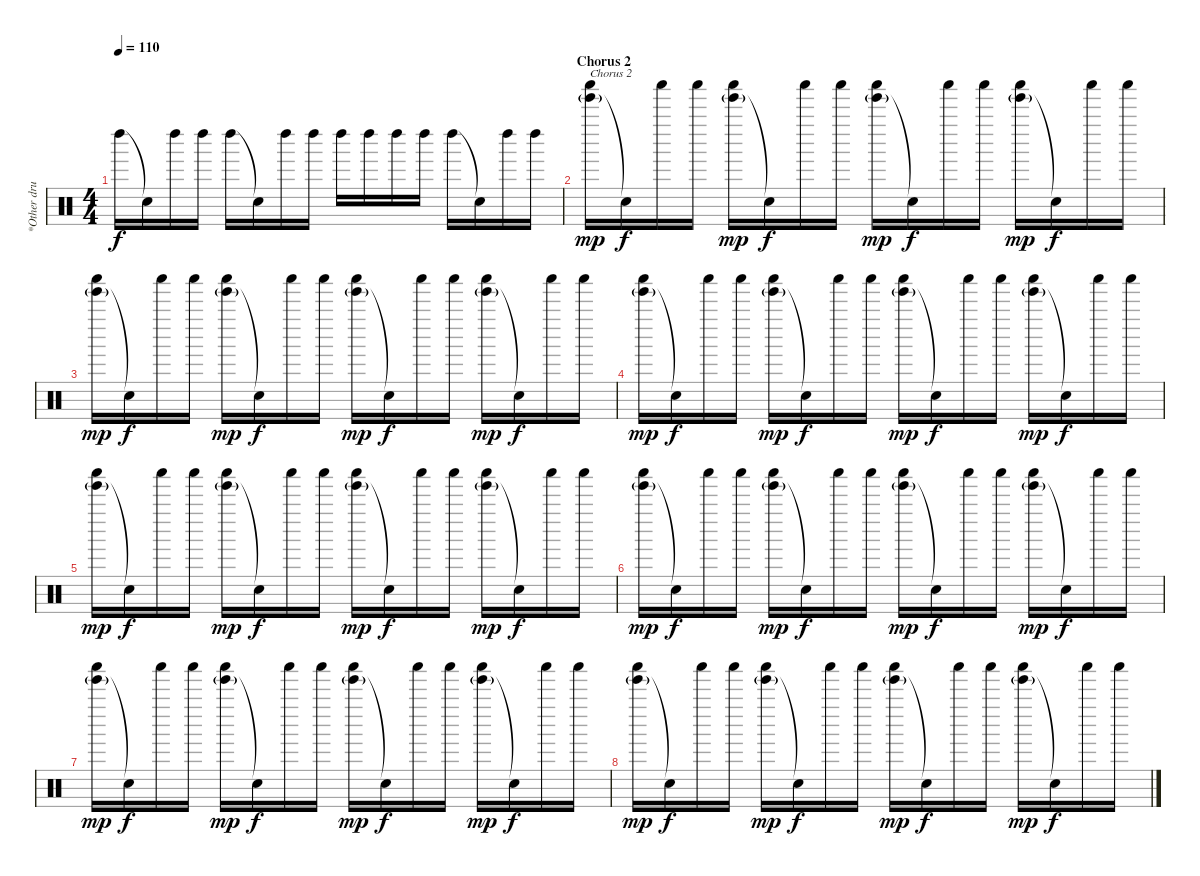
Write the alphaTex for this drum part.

\track ("*Other drums" "*Other dru") {instrument percussion}
\staff {score}
\articulation defaults
\ts (4 4)
\tempo 110
\clef neutral
\ks c "Left Maraca (hit)".16{dy f} "Snare (hit)"{t}.16 "Left Maraca (hit)".16 "Left Maraca (hit)".16 "Left Maraca (hit)".16 "Snare (hit)"{t}.16 "Left Maraca (hit)".16 "Left Maraca (hit)".16 "Left Maraca (hit)".16 "Left Maraca (hit)".16 "Left Maraca (hit)".16 "Left Maraca (hit)".16 "Left Maraca (hit)".16 "Snare (hit)"{t}.16 "Left Maraca (hit)".16 "Left Maraca (hit)".16
|
\section ("" "Chorus 2")
("Tinkle Bell (hit)"{g} "Shaker (hit)").16{txt "Chorus 2" dy mp} "Snare (hit)"{t}.16{dy f} "Shaker (hit)".16 "Shaker (hit)".16 ("Tinkle Bell (hit)"{g} "Shaker (hit)").16{dy mp} "Snare (hit)"{t}.16{dy f} "Shaker (hit)".16 "Shaker (hit)".16 ("Tinkle Bell (hit)"{g} "Shaker (hit)").16{dy mp} "Snare (hit)"{t}.16{dy f} "Shaker (hit)".16 "Shaker (hit)".16 ("Tinkle Bell (hit)"{g} "Shaker (hit)").16{dy mp} "Snare (hit)"{t}.16{dy f} "Shaker (hit)".16 "Shaker (hit)".16 |
("Tinkle Bell (hit)"{g} "Shaker (hit)").16{dy mp} "Snare (hit)"{t}.16{dy f} "Shaker (hit)".16 "Shaker (hit)".16 ("Tinkle Bell (hit)"{g} "Shaker (hit)").16{dy mp} "Snare (hit)"{t}.16{dy f} "Shaker (hit)".16 "Shaker (hit)".16 ("Tinkle Bell (hit)"{g} "Shaker (hit)").16{dy mp} "Snare (hit)"{t}.16{dy f} "Shaker (hit)".16 "Shaker (hit)".16 ("Tinkle Bell (hit)"{g} "Shaker (hit)").16{dy mp} "Snare (hit)"{t}.16{dy f} "Shaker (hit)".16 "Shaker (hit)".16 |
("Tinkle Bell (hit)"{g} "Shaker (hit)").16{dy mp} "Snare (hit)"{t}.16{dy f} "Shaker (hit)".16 "Shaker (hit)".16 ("Tinkle Bell (hit)"{g} "Shaker (hit)").16{dy mp} "Snare (hit)"{t}.16{dy f} "Shaker (hit)".16 "Shaker (hit)".16 ("Tinkle Bell (hit)"{g} "Shaker (hit)").16{dy mp} "Snare (hit)"{t}.16{dy f} "Shaker (hit)".16 "Shaker (hit)".16 ("Tinkle Bell (hit)"{g} "Shaker (hit)").16{dy mp} "Snare (hit)"{t}.16{dy f} "Shaker (hit)".16 "Shaker (hit)".16 |
("Tinkle Bell (hit)"{g} "Shaker (hit)").16{dy mp} "Snare (hit)"{t}.16{dy f} "Shaker (hit)".16 "Shaker (hit)".16 ("Tinkle Bell (hit)"{g} "Shaker (hit)").16{dy mp} "Snare (hit)"{t}.16{dy f} "Shaker (hit)".16 "Shaker (hit)".16 ("Tinkle Bell (hit)"{g} "Shaker (hit)").16{dy mp} "Snare (hit)"{t}.16{dy f} "Shaker (hit)".16 "Shaker (hit)".16 ("Tinkle Bell (hit)"{g} "Shaker (hit)").16{dy mp} "Snare (hit)"{t}.16{dy f} "Shaker (hit)".16 "Shaker (hit)".16 |
("Tinkle Bell (hit)"{g} "Shaker (hit)").16{dy mp} "Snare (hit)"{t}.16{dy f} "Shaker (hit)".16 "Shaker (hit)".16 ("Tinkle Bell (hit)"{g} "Shaker (hit)").16{dy mp} "Snare (hit)"{t}.16{dy f} "Shaker (hit)".16 "Shaker (hit)".16 ("Tinkle Bell (hit)"{g} "Shaker (hit)").16{dy mp} "Snare (hit)"{t}.16{dy f} "Shaker (hit)".16 "Shaker (hit)".16 ("Tinkle Bell (hit)"{g} "Shaker (hit)").16{dy mp} "Snare (hit)"{t}.16{dy f} "Shaker (hit)".16 "Shaker (hit)".16 |
("Tinkle Bell (hit)"{g} "Shaker (hit)").16{dy mp} "Snare (hit)"{t}.16{dy f} "Shaker (hit)".16 "Shaker (hit)".16 ("Tinkle Bell (hit)"{g} "Shaker (hit)").16{dy mp} "Snare (hit)"{t}.16{dy f} "Shaker (hit)".16 "Shaker (hit)".16 ("Tinkle Bell (hit)"{g} "Shaker (hit)").16{dy mp} "Snare (hit)"{t}.16{dy f} "Shaker (hit)".16 "Shaker (hit)".16 ("Tinkle Bell (hit)"{g} "Shaker (hit)").16{dy mp} "Snare (hit)"{t}.16{dy f} "Shaker (hit)".16 "Shaker (hit)".16 |
("Tinkle Bell (hit)"{g} "Shaker (hit)").16{dy mp} "Snare (hit)"{t}.16{dy f} "Shaker (hit)".16 "Shaker (hit)".16 ("Tinkle Bell (hit)"{g} "Shaker (hit)").16{dy mp} "Snare (hit)"{t}.16{dy f} "Shaker (hit)".16 "Shaker (hit)".16 ("Tinkle Bell (hit)"{g} "Shaker (hit)").16{dy mp} "Snare (hit)"{t}.16{dy f} "Shaker (hit)".16 "Shaker (hit)".16 ("Tinkle Bell (hit)"{g} "Shaker (hit)").16{dy mp} "Snare (hit)"{t}.16{dy f} "Shaker (hit)".16 "Shaker (hit)".16
